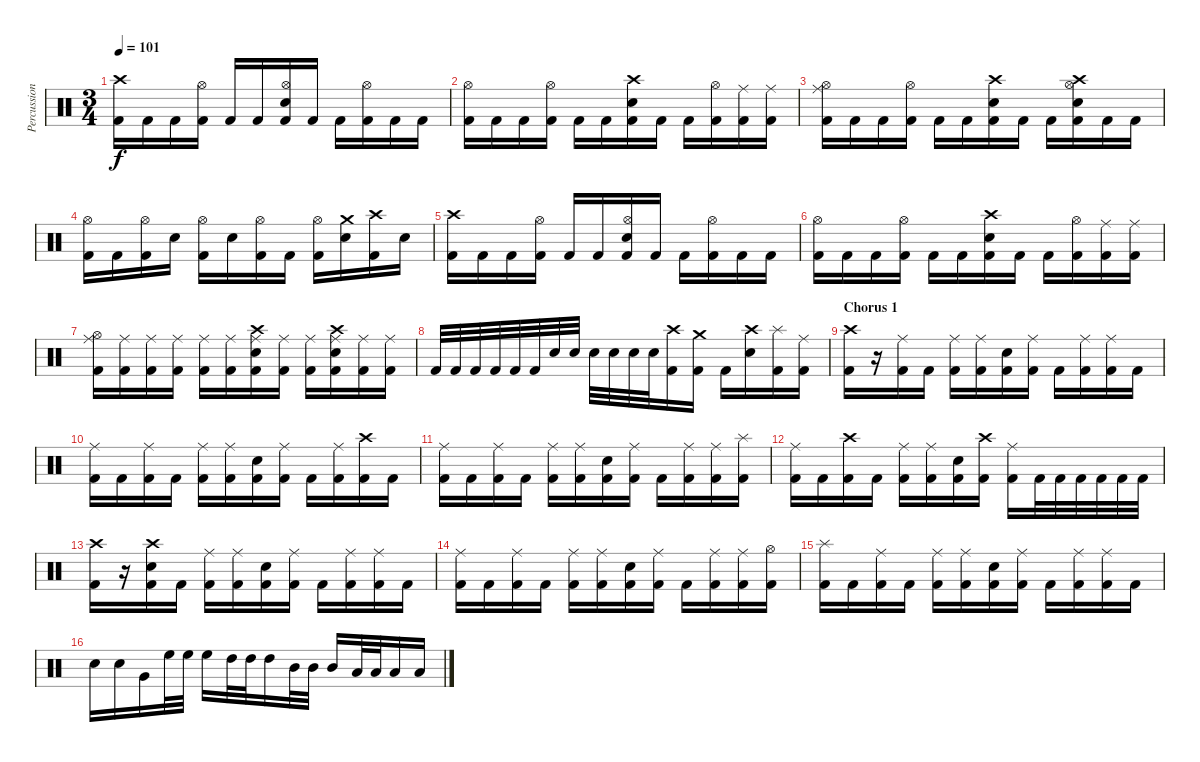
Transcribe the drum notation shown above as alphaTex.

\track ("Percussion" "Percussion") {instrument percussion}
\staff {score}
\articulation defaults
\ts (3 4)
\tempo 101
\clef neutral
\ks c
("Crash high (hit)" "Kick (hit) 2").16{dy f} "Kick (hit) 2".16 "Kick (hit) 2".16 ("Hi-Hat (open)" "Kick (hit) 2").16 "Kick (hit) 2".16 "Kick (hit) 2".16 ("Hi-Hat (open)" "Electric Snare (hit)" "Kick (hit) 2").16 "Kick (hit) 2".16 "Kick (hit) 2".16 ("Hi-Hat (open)" "Kick (hit) 2").16 "Kick (hit) 2".16 "Kick (hit) 2".16 |
("Hi-Hat (open)" "Kick (hit) 2").16 "Kick (hit) 2".16 "Kick (hit) 2".16 ("Hi-Hat (open)" "Kick (hit) 2").16 "Kick (hit) 2".16 "Kick (hit) 2".16 ("Crash high (hit)" "Electric Snare (hit)" "Kick (hit) 2").16 "Kick (hit) 2".16 "Kick (hit) 2".16 ("Hi-Hat (open)" "Kick (hit) 2").16 ("Ride (middle)" "Kick (hit) 2").16 ("Ride (middle)" "Kick (hit) 2").16 |
("Hi-Hat (open)" "Ride (middle)" "Kick (hit) 2").16 "Kick (hit) 2".16 "Kick (hit) 2".16 ("Hi-Hat (open)" "Kick (hit) 2").16 "Kick (hit) 2".16 "Kick (hit) 2".16 ("Crash high (hit)" "Electric Snare (hit)" "Kick (hit) 2").16 "Kick (hit) 2".16 "Kick (hit) 2".16 ("Crash high (hit)" "Hi-Hat (open)" "Electric Snare (hit)" "Kick (hit) 2").16 "Kick (hit) 2".16 "Kick (hit) 2".16 |
("Hi-Hat (open)" "Kick (hit) 2").16 "Kick (hit) 2".16 ("Hi-Hat (open)" "Kick (hit) 2").16 "Electric Snare (hit)".16 ("Hi-Hat (open)" "Kick (hit) 2").16 "Electric Snare (hit)".16 ("Hi-Hat (open)" "Kick (hit) 2").16 "Kick (hit) 2".16 ("Hi-Hat (open)" "Kick (hit) 2").16 ("Crash medium (hit)" "Electric Snare (hit)").16 ("Crash high (hit)" "Kick (hit) 2").16 "Electric Snare (hit)".16 |
("Crash high (hit)" "Kick (hit) 2").16 "Kick (hit) 2".16 "Kick (hit) 2".16 ("Hi-Hat (open)" "Kick (hit) 2").16 "Kick (hit) 2".16 "Kick (hit) 2".16 ("Hi-Hat (open)" "Electric Snare (hit)" "Kick (hit) 2").16 "Kick (hit) 2".16 "Kick (hit) 2".16 ("Hi-Hat (open)" "Kick (hit) 2").16 "Kick (hit) 2".16 "Kick (hit) 2".16 |
("Hi-Hat (open)" "Kick (hit) 2").16 "Kick (hit) 2".16 "Kick (hit) 2".16 ("Hi-Hat (open)" "Kick (hit) 2").16 "Kick (hit) 2".16 "Kick (hit) 2".16 ("Crash high (hit)" "Electric Snare (hit)" "Kick (hit) 2").16 "Kick (hit) 2".16 "Kick (hit) 2".16 ("Hi-Hat (open)" "Kick (hit) 2").16 ("Ride (middle)" "Kick (hit) 2").16 ("Ride (middle)" "Kick (hit) 2").16 |
("Hi-Hat (open)" "Ride (middle)" "Kick (hit) 2").16 ("Ride (middle)" "Kick (hit) 2").16 ("Ride (middle)" "Kick (hit) 2").16 ("Ride (middle)" "Kick (hit) 2").16 ("Ride (middle)" "Kick (hit) 2").16 ("Ride (middle)" "Kick (hit) 2").16 ("Ride (middle)" "Crash high (hit)" "Electric Snare (hit)" "Kick (hit) 2").16 ("Ride (middle)" "Kick (hit) 2").16 ("Ride (middle)" "Kick (hit) 2").16 ("Ride (middle)" "Crash high (hit)" "Electric Snare (hit)" "Kick (hit) 2").16 ("Ride (middle)" "Kick (hit) 2").16 ("Ride (middle)" "Kick (hit) 2").16 |
"Kick (hit) 2".32 "Kick (hit) 2".32 "Kick (hit) 2".32 "Kick (hit) 2".32 "Kick (hit) 2".32 "Kick (hit) 2".32 "Electric Snare (hit)".32 "Electric Snare (hit)".32 "Electric Snare (hit)".32 "Electric Snare (hit)".32 "Electric Snare (hit)".32 "Electric Snare (hit)".32 ("Crash high (hit)" "Kick (hit) 2").16 ("Crash medium (hit)" "Kick (hit) 2").16 "Kick (hit) 2".16 ("Crash high (hit)" "Electric Snare (hit)").16 ("Splash (hit)" "Kick (hit) 2").16 ("Ride (middle)" "Kick (hit) 2").16 |
\section ("" "Chorus 1")
("Crash high (hit)" "Kick (hit) 2").16 r.16 ("Ride (middle)" "Kick (hit) 2").16 "Kick (hit) 2".16 ("Ride (middle)" "Kick (hit) 2").16 ("Ride (middle)" "Kick (hit) 2").16 ("Electric Snare (hit)" "Kick (hit) 2").16 ("Ride (middle)" "Kick (hit) 2").16 "Kick (hit) 2".16 ("Ride (middle)" "Kick (hit) 2").16 ("Ride (middle)" "Kick (hit) 2").16 "Kick (hit) 2".16 |
("Ride (middle)" "Kick (hit) 2").16 "Kick (hit) 2".16 ("Ride (middle)" "Kick (hit) 2").16 "Kick (hit) 2".16 ("Ride (middle)" "Kick (hit) 2").16 ("Ride (middle)" "Kick (hit) 2").16 ("Electric Snare (hit)" "Kick (hit) 2").16 ("Ride (middle)" "Kick (hit) 2").16 "Kick (hit) 2".16 ("Ride (middle)" "Kick (hit) 2").16 ("Crash high (hit)" "Kick (hit) 2").16 "Kick (hit) 2".16 |
("Ride (middle)" "Kick (hit) 2").16 "Kick (hit) 2".16 ("Ride (middle)" "Kick (hit) 2").16 "Kick (hit) 2".16 ("Ride (middle)" "Kick (hit) 2").16 ("Ride (middle)" "Kick (hit) 2").16 ("Electric Snare (hit)" "Kick (hit) 2").16 ("Ride (middle)" "Kick (hit) 2").16 "Kick (hit) 2".16 ("Ride (middle)" "Kick (hit) 2").16 ("Ride (middle)" "Kick (hit) 2").16 ("Splash (hit)" "Kick (hit) 2").16 |
("Ride (middle)" "Kick (hit) 2").16 "Kick (hit) 2".16 ("Crash high (hit)" "Kick (hit) 2").16 "Kick (hit) 2".16 ("Ride (middle)" "Kick (hit) 2").16 ("Ride (middle)" "Kick (hit) 2").16 ("Electric Snare (hit)" "Kick (hit) 2").16 ("Crash high (hit)" "Kick (hit) 2").16 ("Ride (middle)" "Kick (hit) 2").16 "Kick (hit) 2".32 "Kick (hit) 2".32 "Kick (hit) 2".32 "Kick (hit) 2".32 "Kick (hit) 2".32 "Kick (hit) 2".32 |
("Crash high (hit)" "Kick (hit) 2").16 r.16 ("Crash high (hit)" "Electric Snare (hit)" "Kick (hit) 2").16 "Kick (hit) 2".16 ("Ride (middle)" "Kick (hit) 2").16 ("Ride (middle)" "Kick (hit) 2").16 ("Electric Snare (hit)" "Kick (hit) 2").16 ("Ride (middle)" "Kick (hit) 2").16 "Kick (hit) 2".16 ("Ride (middle)" "Kick (hit) 2").16 ("Ride (middle)" "Kick (hit) 2").16 "Kick (hit) 2".16 |
("Ride (middle)" "Kick (hit) 2").16 "Kick (hit) 2".16 ("Ride (middle)" "Kick (hit) 2").16 "Kick (hit) 2".16 ("Ride (middle)" "Kick (hit) 2").16 ("Ride (middle)" "Kick (hit) 2").16 ("Electric Snare (hit)" "Kick (hit) 2").16 ("Ride (middle)" "Kick (hit) 2").16 "Kick (hit) 2".16 ("Ride (middle)" "Kick (hit) 2").16 ("Ride (middle)" "Kick (hit) 2").16 ("Hi-Hat (open)" "Kick (hit) 2").16 |
("Splash (hit)" "Kick (hit) 2").16 "Kick (hit) 2".16 ("Ride (middle)" "Kick (hit) 2").16 "Kick (hit) 2".16 ("Ride (middle)" "Kick (hit) 2").16 ("Ride (middle)" "Kick (hit) 2").16 ("Electric Snare (hit)" "Kick (hit) 2").16 ("Ride (middle)" "Kick (hit) 2").16 "Kick (hit) 2".16 ("Ride (middle)" "Kick (hit) 2").16 ("Ride (middle)" "Kick (hit) 2").16 "Kick (hit) 2".16 |
"Electric Snare (hit)".16 "Electric Snare (hit)".16 "Very Low Tom (hit)".16 "High Floor Tom (hit)".32 "High Floor Tom (hit)".32 "High Floor Tom (hit)".16 "High Tom (hit)".32 "High Tom (hit)".32 "High Tom (hit)".16 "Mid Tom (hit)".32 "Mid Tom (hit)".32 "Mid Tom (hit)".16 "Low Tom (hit)".32 "Low Tom (hit)".32 "Low Tom (hit)".16 "Low Tom (hit)".16
